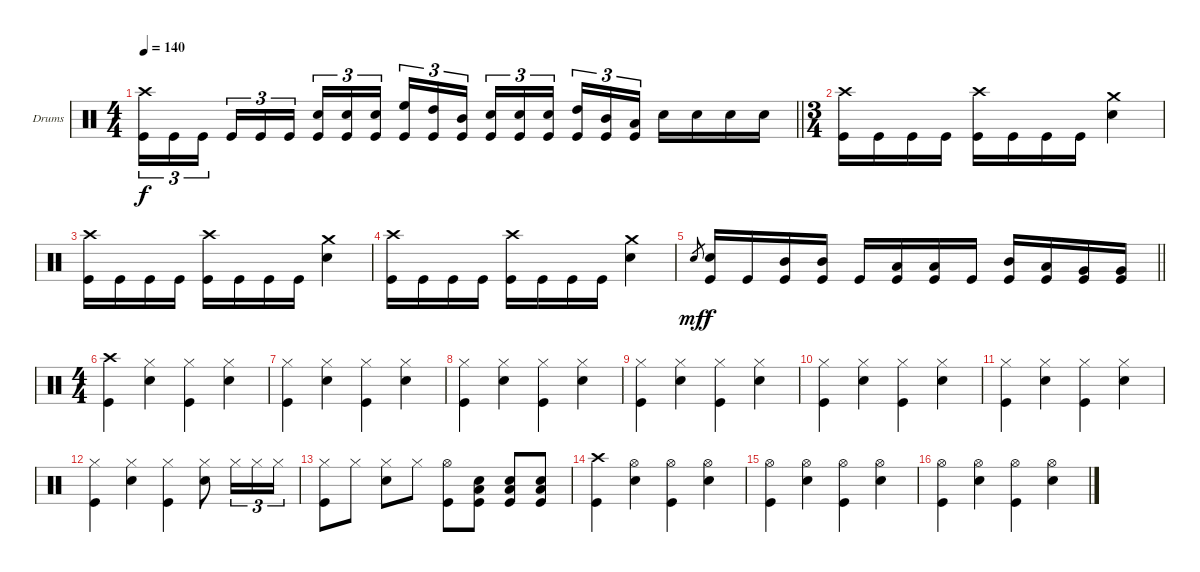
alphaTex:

\bracketExtendMode groupsimilarinstruments
\firstSystemTrackNameOrientation horizontal
\otherSystemsTrackNameOrientation horizontal
\track ("Drumkit" "Drums") {instrument percussion}
\staff {score}
\articulation defaults
\ts (4 4)
\tempo 140
\clef neutral
\barLineRight lightlight
\ks c
("Crash high (hit)" "Kick (hit)").16{tu (3 2) dy f} "Kick (hit)".16{tu (3 2)} "Kick (hit)".16{tu (3 2)} "Kick (hit)".16{tu (3 2)} "Kick (hit)".16{tu (3 2)} "Kick (hit)".16{tu (3 2)} ("Snare (hit) 2" "Kick (hit)").16{tu (3 2)} ("Snare (hit) 2" "Kick (hit)").16{tu (3 2)} ("Snare (hit) 2" "Kick (hit)").16{tu (3 2)} ("High Floor Tom (hit)" "Kick (hit)").16{tu (3 2)} ("High Tom (hit)" "Kick (hit)").16{tu (3 2)} ("Mid Tom (hit)" "Kick (hit)").16{tu (3 2)} ("Snare (hit) 2" "Kick (hit)").16{tu (3 2)} ("Snare (hit) 2" "Kick (hit)").16{tu (3 2)} ("Snare (hit) 2" "Kick (hit)").16{tu (3 2)} ("High Tom (hit)" "Kick (hit)").16{tu (3 2)} ("Mid Tom (hit)" "Kick (hit)").16{tu (3 2)} ("Low Tom (hit)" "Kick (hit)").16{tu (3 2)} "Snare (hit) 2".16 "Snare (hit) 2".16 "Snare (hit) 2".16 "Snare (hit) 2".16 |
\ts (3 4)
\beaming (8 2 2 2 2)
("Crash high (hit)" "Kick (hit)").16 "Kick (hit)".16 "Kick (hit)".16 "Kick (hit)".16 ("Crash high (hit)" "Kick (hit)").16 "Kick (hit)".16 "Kick (hit)".16 "Kick (hit)".16 ("Crash medium (hit)" "Snare (hit) 2").4 |
("Crash high (hit)" "Kick (hit)").16 "Kick (hit)".16 "Kick (hit)".16 "Kick (hit)".16 ("Crash high (hit)" "Kick (hit)").16 "Kick (hit)".16 "Kick (hit)".16 "Kick (hit)".16 ("Crash medium (hit)" "Snare (hit) 2").4 |
("Crash high (hit)" "Kick (hit)").16 "Kick (hit)".16 "Kick (hit)".16 "Kick (hit)".16 ("Crash high (hit)" "Kick (hit)").16 "Kick (hit)".16 "Kick (hit)".16 "Kick (hit)".16 ("Crash medium (hit)" "Snare (hit) 2").4 |
\barLineRight lightlight "Snare (hit) 2".8{gr dy mf}
("Snare (hit) 2" "Kick (hit)").16{dy f} "Kick (hit)".16 ("Mid Tom (hit)" "Kick (hit)").16 ("Mid Tom (hit)" "Kick (hit)").16 "Kick (hit)".16 ("Low Tom (hit)" "Kick (hit)").16 ("Low Tom (hit)" "Kick (hit)").16 "Kick (hit)".16 ("Mid Tom (hit)" "Kick (hit)").16 ("Low Tom (hit)" "Kick (hit)").16 ("Very Low Tom (hit)" "Kick (hit)").16 ("Very Low Tom (hit)" "Kick (hit)").16 |
\ts (4 4)
\beaming (8 2 2 2 2)
("Crash high (hit)" "Kick (hit)").4 ("Hi-Hat (closed)" "Snare (hit) 2").4 ("Hi-Hat (closed)" "Kick (hit)").4 ("Hi-Hat (closed)" "Snare (hit) 2").4 |
("Hi-Hat (closed)" "Kick (hit)").4 ("Hi-Hat (closed)" "Snare (hit) 2").4 ("Hi-Hat (closed)" "Kick (hit)").4 ("Hi-Hat (closed)" "Snare (hit) 2").4 |
("Hi-Hat (closed)" "Kick (hit)").4 ("Hi-Hat (closed)" "Snare (hit) 2").4 ("Hi-Hat (closed)" "Kick (hit)").4 ("Hi-Hat (closed)" "Snare (hit) 2").4 |
("Hi-Hat (closed)" "Kick (hit)").4 ("Hi-Hat (closed)" "Snare (hit) 2").4 ("Hi-Hat (closed)" "Kick (hit)").4 ("Hi-Hat (closed)" "Snare (hit) 2").4 |
("Hi-Hat (closed)" "Kick (hit)").4 ("Hi-Hat (closed)" "Snare (hit) 2").4 ("Hi-Hat (closed)" "Kick (hit)").4 ("Hi-Hat (closed)" "Snare (hit) 2").4 |
("Hi-Hat (closed)" "Kick (hit)").4 ("Hi-Hat (closed)" "Snare (hit) 2").4 ("Hi-Hat (closed)" "Kick (hit)").4 ("Hi-Hat (closed)" "Snare (hit) 2").4 |
("Hi-Hat (closed)" "Kick (hit)").4 ("Hi-Hat (closed)" "Snare (hit) 2").4 ("Hi-Hat (closed)" "Kick (hit)").4 ("Hi-Hat (closed)" "Snare (hit) 2").8 "Hi-Hat (closed)".16{tu (3 2)} "Hi-Hat (closed)".16{tu (3 2)} "Hi-Hat (closed)".16{tu (3 2)} |
("Hi-Hat (closed)" "Kick (hit)").8 "Hi-Hat (closed)".8 ("Hi-Hat (closed)" "Snare (hit) 2").8 "Hi-Hat (closed)".8 ("Hi-Hat (open)" "Kick (hit)").8 ("Low Tom (hit)" "Snare (hit) 2" "Kick (hit)").8 ("Low Tom (hit)" "Snare (hit) 2" "Kick (hit)").8 ("Low Tom (hit)" "Snare (hit) 2" "Kick (hit)").8 |
("Crash high (hit)" "Kick (hit)").4 ("Hi-Hat (open)" "Snare (hit) 2").4 ("Hi-Hat (open)" "Kick (hit)").4 ("Hi-Hat (open)" "Snare (hit) 2").4 |
("Hi-Hat (open)" "Kick (hit)").4 ("Hi-Hat (open)" "Snare (hit) 2").4 ("Hi-Hat (open)" "Kick (hit)").4 ("Hi-Hat (open)" "Snare (hit) 2").4 |
("Hi-Hat (open)" "Kick (hit)").4 ("Hi-Hat (open)" "Snare (hit) 2").4 ("Hi-Hat (open)" "Kick (hit)").4 ("Hi-Hat (open)" "Snare (hit) 2").4
